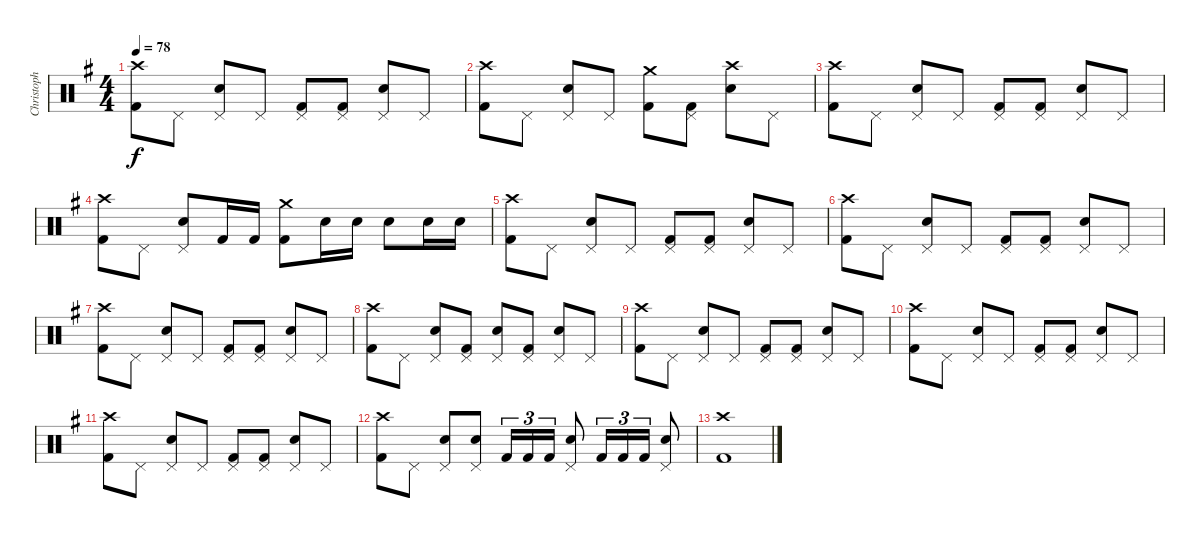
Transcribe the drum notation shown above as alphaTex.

\track ("Christoph" "Christoph") {instrument percussion}
\staff {score}
\articulation defaults
\ts (4 4)
\tempo 78
\clef neutral
\ks g
("Crash high (hit)" "Kick (hit) 2").8{dy f} "Pedal Hi-Hat (hit)".8 ("Pedal Hi-Hat (hit)" "Snare (hit) 2").8 "Pedal Hi-Hat (hit)".8 ("Pedal Hi-Hat (hit)" "Kick (hit) 2").8 ("Pedal Hi-Hat (hit)" "Kick (hit) 2").8 ("Pedal Hi-Hat (hit)" "Snare (hit) 2").8 "Pedal Hi-Hat (hit)".8 |
("Crash high (hit)" "Kick (hit) 2").8 "Pedal Hi-Hat (hit)".8 ("Pedal Hi-Hat (hit)" "Snare (hit) 2").8 "Pedal Hi-Hat (hit)".8 ("Crash medium (hit)" "Kick (hit) 2").8 ("Pedal Hi-Hat (hit)" "Kick (hit) 2").8 ("Crash high (hit)" "Snare (hit) 2").8 "Pedal Hi-Hat (hit)".8 |
("Crash high (hit)" "Kick (hit) 2").8 "Pedal Hi-Hat (hit)".8 ("Pedal Hi-Hat (hit)" "Snare (hit) 2").8 "Pedal Hi-Hat (hit)".8 ("Pedal Hi-Hat (hit)" "Kick (hit) 2").8 ("Pedal Hi-Hat (hit)" "Kick (hit) 2").8 ("Pedal Hi-Hat (hit)" "Snare (hit) 2").8 "Pedal Hi-Hat (hit)".8 |
("Crash high (hit)" "Kick (hit) 2").8 "Pedal Hi-Hat (hit)".8 ("Pedal Hi-Hat (hit)" "Snare (hit) 2").8 "Kick (hit) 2".16 "Kick (hit) 2".16 ("Crash medium (hit)" "Kick (hit) 2").8 "Snare (hit) 2".16 "Snare (hit) 2".16 "Snare (hit) 2".8 "Snare (hit) 2".16 "Snare (hit) 2".16 |
("Crash high (hit)" "Kick (hit) 2").8 "Pedal Hi-Hat (hit)".8 ("Pedal Hi-Hat (hit)" "Snare (hit) 2").8 "Pedal Hi-Hat (hit)".8 ("Pedal Hi-Hat (hit)" "Kick (hit) 2").8 ("Pedal Hi-Hat (hit)" "Kick (hit) 2").8 ("Pedal Hi-Hat (hit)" "Snare (hit) 2").8 "Pedal Hi-Hat (hit)".8 |
("Crash high (hit)" "Kick (hit) 2").8 "Pedal Hi-Hat (hit)".8 ("Pedal Hi-Hat (hit)" "Snare (hit) 2").8 "Pedal Hi-Hat (hit)".8 ("Pedal Hi-Hat (hit)" "Kick (hit) 2").8 ("Pedal Hi-Hat (hit)" "Kick (hit) 2").8 ("Pedal Hi-Hat (hit)" "Snare (hit) 2").8 "Pedal Hi-Hat (hit)".8 |
("Crash high (hit)" "Kick (hit) 2").8 "Pedal Hi-Hat (hit)".8 ("Pedal Hi-Hat (hit)" "Snare (hit) 2").8 "Pedal Hi-Hat (hit)".8 ("Pedal Hi-Hat (hit)" "Kick (hit) 2").8 ("Pedal Hi-Hat (hit)" "Kick (hit) 2").8 ("Pedal Hi-Hat (hit)" "Snare (hit) 2").8 "Pedal Hi-Hat (hit)".8 |
("Crash high (hit)" "Kick (hit) 2").8 "Pedal Hi-Hat (hit)".8 ("Pedal Hi-Hat (hit)" "Snare (hit) 2").8 ("Pedal Hi-Hat (hit)" "Kick (hit) 2").8 ("Pedal Hi-Hat (hit)" "Snare (hit) 2").8 ("Pedal Hi-Hat (hit)" "Kick (hit) 2").8 ("Pedal Hi-Hat (hit)" "Snare (hit) 2").8 "Pedal Hi-Hat (hit)".8 |
("Crash high (hit)" "Kick (hit) 2").8 "Pedal Hi-Hat (hit)".8 ("Pedal Hi-Hat (hit)" "Snare (hit) 2").8 "Pedal Hi-Hat (hit)".8 ("Pedal Hi-Hat (hit)" "Kick (hit) 2").8 ("Pedal Hi-Hat (hit)" "Kick (hit) 2").8 ("Pedal Hi-Hat (hit)" "Snare (hit) 2").8 "Pedal Hi-Hat (hit)".8 |
("Crash high (hit)" "Kick (hit) 2").8 "Pedal Hi-Hat (hit)".8 ("Pedal Hi-Hat (hit)" "Snare (hit) 2").8 "Pedal Hi-Hat (hit)".8 ("Pedal Hi-Hat (hit)" "Kick (hit) 2").8 ("Pedal Hi-Hat (hit)" "Kick (hit) 2").8 ("Pedal Hi-Hat (hit)" "Snare (hit) 2").8 "Pedal Hi-Hat (hit)".8 |
("Crash high (hit)" "Kick (hit) 2").8 "Pedal Hi-Hat (hit)".8 ("Pedal Hi-Hat (hit)" "Snare (hit) 2").8 "Pedal Hi-Hat (hit)".8 ("Pedal Hi-Hat (hit)" "Kick (hit) 2").8 ("Pedal Hi-Hat (hit)" "Kick (hit) 2").8 ("Pedal Hi-Hat (hit)" "Snare (hit) 2").8 "Pedal Hi-Hat (hit)".8 |
("Crash high (hit)" "Kick (hit) 2").8 "Pedal Hi-Hat (hit)".8 ("Pedal Hi-Hat (hit)" "Snare (hit) 2").8 ("Pedal Hi-Hat (hit)" "Snare (hit) 2").8 "Kick (hit) 2".16{tu (3 2)} "Kick (hit) 2".16{tu (3 2)} "Kick (hit) 2".16{tu (3 2)} ("Pedal Hi-Hat (hit)" "Snare (hit) 2").8 "Kick (hit) 2".16{tu (3 2)} "Kick (hit) 2".16{tu (3 2)} "Kick (hit) 2".16{tu (3 2)} ("Pedal Hi-Hat (hit)" "Snare (hit) 2").8 |
("Crash high (hit)" "Kick (hit) 2").1
